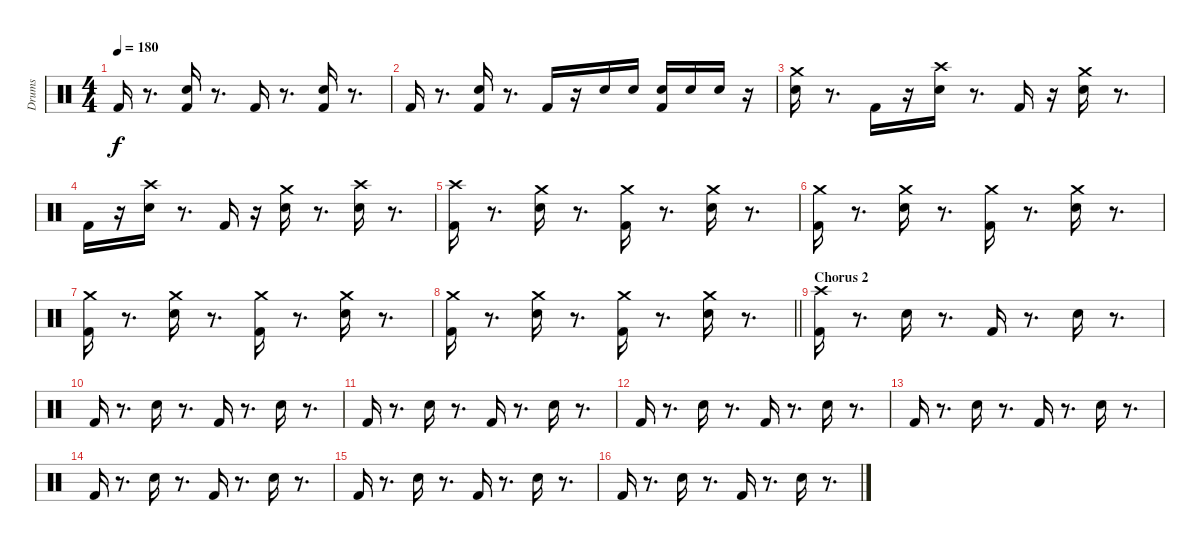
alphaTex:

\track ("Drums" "Drums") {instrument percussion}
\staff {score}
\articulation defaults
\ts (4 4)
\tempo 180
\clef neutral
\ks c "Kick (hit) 2".16{dy f}
r.8{d} ("Kick (hit) 2" "Snare (hit) 2").16 r.8{d} "Kick (hit) 2".16 r.8{d} ("Kick (hit) 2" "Snare (hit) 2").16 r.8{d} |
"Kick (hit) 2".16 r.8{d} ("Kick (hit) 2" "Snare (hit) 2").16 r.8{d} "Kick (hit) 2".16 r.16 "Snare (hit) 2".16 "Snare (hit) 2".16 ("Kick (hit) 2" "Snare (hit) 2").16 "Snare (hit) 2".16 "Snare (hit) 2".16 r.16 |
("Crash medium (hit)" "Snare (hit) 2").16 r.8{d} "Kick (hit) 2".16 r.16 ("Snare (hit) 2" "Crash high (hit)").16 r.8{d} "Kick (hit) 2".16 r.16 ("Snare (hit) 2" "Crash medium (hit)").16 r.8{d} |
"Kick (hit) 2".16 r.16 ("Snare (hit) 2" "Crash high (hit)").16 r.8{d} "Kick (hit) 2".16 r.16 ("Snare (hit) 2" "Crash medium (hit)").16 r.8{d} ("Snare (hit) 2" "Crash high (hit)").16 r.8{d} |
("Kick (hit) 2" "Crash high (hit)").16 r.8{d} ("Snare (hit) 2" "Crash medium (hit)").16 r.8{d} ("Kick (hit) 2" "Crash medium (hit)").16 r.8{d} ("Snare (hit) 2" "Crash medium (hit)").16 r.8{d} |
("Kick (hit) 2" "Crash medium (hit)").16 r.8{d} ("Snare (hit) 2" "Crash medium (hit)").16 r.8{d} ("Kick (hit) 2" "Crash medium (hit)").16 r.8{d} ("Snare (hit) 2" "Crash medium (hit)").16 r.8{d} |
("Kick (hit) 2" "Crash medium (hit)").16 r.8{d} ("Snare (hit) 2" "Crash medium (hit)").16 r.8{d} ("Kick (hit) 2" "Crash medium (hit)").16 r.8{d} ("Snare (hit) 2" "Crash medium (hit)").16 r.8{d} |
\barLineRight lightlight
("Kick (hit) 2" "Crash medium (hit)").16 r.8{d} ("Snare (hit) 2" "Crash medium (hit)").16 r.8{d} ("Kick (hit) 2" "Crash medium (hit)").16 r.8{d} ("Snare (hit) 2" "Crash medium (hit)").16 r.8{d} |
\section ("" "Chorus 2")
("Kick (hit) 2" "Crash high (hit)").16 r.8{d} "Snare (hit) 2".16 r.8{d} "Kick (hit) 2".16 r.8{d} "Snare (hit) 2".16 r.8{d} |
"Kick (hit) 2".16 r.8{d} "Snare (hit) 2".16 r.8{d} "Kick (hit) 2".16 r.8{d} "Snare (hit) 2".16 r.8{d} |
"Kick (hit) 2".16 r.8{d} "Snare (hit) 2".16 r.8{d} "Kick (hit) 2".16 r.8{d} "Snare (hit) 2".16 r.8{d} |
"Kick (hit) 2".16 r.8{d} "Snare (hit) 2".16 r.8{d} "Kick (hit) 2".16 r.8{d} "Snare (hit) 2".16 r.8{d} |
"Kick (hit) 2".16 r.8{d} "Snare (hit) 2".16 r.8{d} "Kick (hit) 2".16 r.8{d} "Snare (hit) 2".16 r.8{d} |
"Kick (hit) 2".16 r.8{d} "Snare (hit) 2".16 r.8{d} "Kick (hit) 2".16 r.8{d} "Snare (hit) 2".16 r.8{d} |
"Kick (hit) 2".16 r.8{d} "Snare (hit) 2".16 r.8{d} "Kick (hit) 2".16 r.8{d} "Snare (hit) 2".16 r.8{d} |
"Kick (hit) 2".16 r.8{d} "Snare (hit) 2".16 r.8{d} "Kick (hit) 2".16 r.8{d} "Snare (hit) 2".16 r.8{d}
